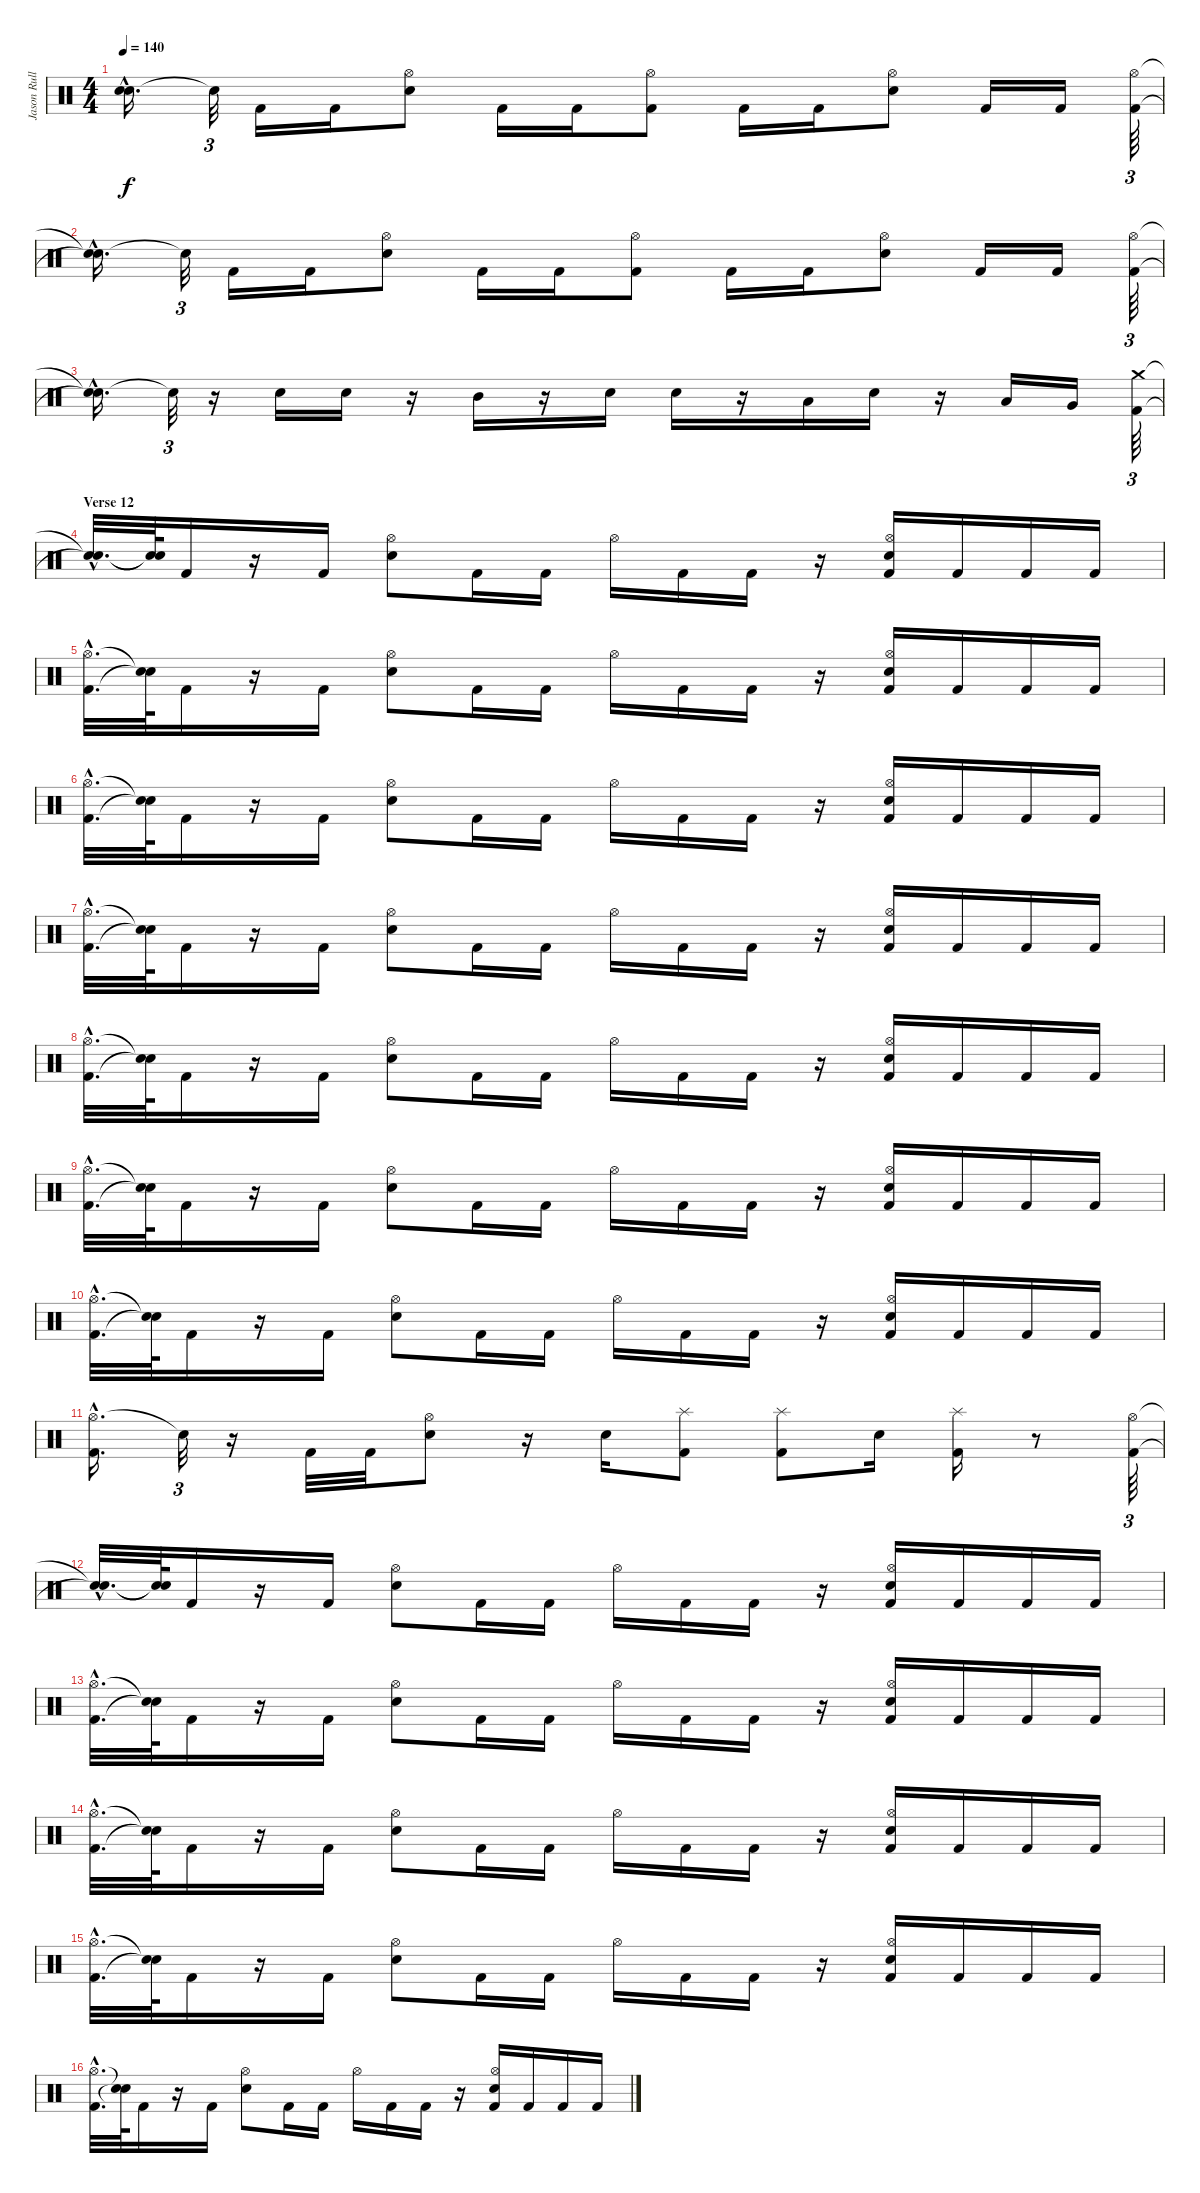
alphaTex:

\track ("Jason Rullo" "Jason Rull") {instrument percussion}
\staff {score}
\articulation defaults
\ts (4 4)
\tempo 140
\clef neutral
\ks c
("Snare (hit)"{hac t} "Snare (hit)"{hac t}).16{d dy f} "Snare (hit)"{t}.32{tu (3 2)} "Kick (hit) 2".16 "Kick (hit) 2".16 ("Hi-Hat (open)" "Electric Snare (hit)").8 "Kick (hit) 2".16 "Kick (hit) 2".16 ("Hi-Hat (open)" "Kick (hit) 2").8 "Kick (hit) 2".16 "Kick (hit) 2".16 ("Hi-Hat (open)" "Electric Snare (hit)").8 "Kick (hit) 2".16 "Kick (hit) 2".16 ("Hi-Hat (open)" "Kick (hit) 2").64{tu (3 2)} |
("Snare (hit)"{hac t} "Snare (hit)"{hac t}).16{d} "Snare (hit)"{t}.32{tu (3 2)} "Kick (hit) 2".16 "Kick (hit) 2".16 ("Hi-Hat (open)" "Electric Snare (hit)").8 "Kick (hit) 2".16 "Kick (hit) 2".16 ("Hi-Hat (open)" "Kick (hit) 2").8 "Kick (hit) 2".16 "Kick (hit) 2".16 ("Hi-Hat (open)" "Electric Snare (hit)").8 "Kick (hit) 2".16 "Kick (hit) 2".16 ("Hi-Hat (open)" "Kick (hit) 2").64{tu (3 2)} |
("Snare (hit)"{hac t} "Snare (hit)"{hac t}).16{d} "Snare (hit)"{t}.32{tu (3 2)} r.16 "Electric Snare (hit)".16 "Electric Snare (hit)".16 r.16 "Mid Tom (hit)".16 r.16 "Electric Snare (hit)".16 "Electric Snare (hit)".16 r.16 "Low Tom (hit)".16 "Electric Snare (hit)".16 r.16 "Low Tom (hit)".16 "Very Low Tom (hit)".16 ("Crash medium (hit)" "Kick (hit) 2").64{tu (3 2) volume 15 balance 8} |
\section ("" "Verse 12")
("Snare (hit)"{hac t} "Snare (hit)"{hac t}).32{d} ("Snare (hit)"{t} "Snare (hit)"{t}).64 "Kick (hit) 2".16 r.16 "Kick (hit) 2".16 ("Hi-Hat (open)" "Electric Snare (hit)").8 "Kick (hit) 2".16 "Kick (hit) 2".16 "Hi-Hat (open)".16 "Kick (hit) 2".16 "Kick (hit) 2".16 r.16 ("Hi-Hat (open)" "Kick (hit) 2" "Electric Snare (hit)").16 "Kick (hit) 2".16 "Kick (hit) 2".16 "Kick (hit) 2".16 |
("Hi-Hat (open)"{hac} "Kick (hit) 2"{hac}).32{d} ("Snare (hit)"{t} "Snare (hit)"{t}).64 "Kick (hit) 2".16 r.16 "Kick (hit) 2".16 ("Hi-Hat (open)" "Electric Snare (hit)").8 "Kick (hit) 2".16 "Kick (hit) 2".16 "Hi-Hat (open)".16 "Kick (hit) 2".16 "Kick (hit) 2".16 r.16 ("Hi-Hat (open)" "Kick (hit) 2" "Electric Snare (hit)").16 "Kick (hit) 2".16 "Kick (hit) 2".16 "Kick (hit) 2".16 |
("Hi-Hat (open)"{hac} "Kick (hit) 2"{hac}).32{d} ("Snare (hit)"{t} "Snare (hit)"{t}).64 "Kick (hit) 2".16 r.16 "Kick (hit) 2".16 ("Hi-Hat (open)" "Electric Snare (hit)").8 "Kick (hit) 2".16 "Kick (hit) 2".16 "Hi-Hat (open)".16 "Kick (hit) 2".16 "Kick (hit) 2".16 r.16 ("Hi-Hat (open)" "Kick (hit) 2" "Electric Snare (hit)").16 "Kick (hit) 2".16 "Kick (hit) 2".16 "Kick (hit) 2".16 |
("Hi-Hat (open)"{hac} "Kick (hit) 2"{hac}).32{d} ("Snare (hit)"{t} "Snare (hit)"{t}).64 "Kick (hit) 2".16 r.16 "Kick (hit) 2".16 ("Hi-Hat (open)" "Electric Snare (hit)").8 "Kick (hit) 2".16 "Kick (hit) 2".16 "Hi-Hat (open)".16 "Kick (hit) 2".16 "Kick (hit) 2".16 r.16 ("Hi-Hat (open)" "Kick (hit) 2" "Electric Snare (hit)").16 "Kick (hit) 2".16 "Kick (hit) 2".16 "Kick (hit) 2".16 |
("Hi-Hat (open)"{hac} "Kick (hit) 2"{hac}).32{d} ("Snare (hit)"{t} "Snare (hit)"{t}).64 "Kick (hit) 2".16 r.16 "Kick (hit) 2".16 ("Hi-Hat (open)" "Electric Snare (hit)").8 "Kick (hit) 2".16 "Kick (hit) 2".16 "Hi-Hat (open)".16 "Kick (hit) 2".16 "Kick (hit) 2".16 r.16 ("Hi-Hat (open)" "Kick (hit) 2" "Electric Snare (hit)").16 "Kick (hit) 2".16 "Kick (hit) 2".16 "Kick (hit) 2".16 |
("Hi-Hat (open)"{hac} "Kick (hit) 2"{hac}).32{d} ("Snare (hit)"{t} "Snare (hit)"{t}).64 "Kick (hit) 2".16 r.16 "Kick (hit) 2".16 ("Hi-Hat (open)" "Electric Snare (hit)").8 "Kick (hit) 2".16 "Kick (hit) 2".16 "Hi-Hat (open)".16 "Kick (hit) 2".16 "Kick (hit) 2".16 r.16 ("Hi-Hat (open)" "Kick (hit) 2" "Electric Snare (hit)").16 "Kick (hit) 2".16 "Kick (hit) 2".16 "Kick (hit) 2".16 |
("Hi-Hat (open)"{hac} "Kick (hit) 2"{hac}).32{d} ("Snare (hit)"{t} "Snare (hit)"{t}).64 "Kick (hit) 2".16 r.16 "Kick (hit) 2".16 ("Hi-Hat (open)" "Electric Snare (hit)").8 "Kick (hit) 2".16 "Kick (hit) 2".16 "Hi-Hat (open)".16 "Kick (hit) 2".16 "Kick (hit) 2".16 r.16 ("Hi-Hat (open)" "Kick (hit) 2" "Electric Snare (hit)").16 "Kick (hit) 2".16 "Kick (hit) 2".16 "Kick (hit) 2".16 |
("Hi-Hat (open)"{hac} "Kick (hit) 2"{hac}).16{d} "Snare (hit)"{t}.32{tu (3 2)} r.16 "Kick (hit) 2".32 "Kick (hit) 2".32 ("Hi-Hat (open)" "Electric Snare (hit)").8 r.16 "Electric Snare (hit)".16 ("Splash (hit)" "Kick (hit) 2").8 ("Splash (hit)" "Kick (hit) 2").8 "Electric Snare (hit)".16 ("Splash (hit)" "Kick (hit) 2").16 r.8 ("Hi-Hat (open)" "Kick (hit) 2").64{tu (3 2)} |
("Snare (hit)"{hac t} "Snare (hit)"{hac t}).32{d} ("Snare (hit)"{t} "Snare (hit)"{t}).64 "Kick (hit) 2".16 r.16 "Kick (hit) 2".16 ("Hi-Hat (open)" "Electric Snare (hit)").8 "Kick (hit) 2".16 "Kick (hit) 2".16 "Hi-Hat (open)".16 "Kick (hit) 2".16 "Kick (hit) 2".16 r.16 ("Hi-Hat (open)" "Kick (hit) 2" "Electric Snare (hit)").16 "Kick (hit) 2".16 "Kick (hit) 2".16 "Kick (hit) 2".16 |
("Hi-Hat (open)"{hac} "Kick (hit) 2"{hac}).32{d} ("Snare (hit)"{t} "Snare (hit)"{t}).64 "Kick (hit) 2".16 r.16 "Kick (hit) 2".16 ("Hi-Hat (open)" "Electric Snare (hit)").8 "Kick (hit) 2".16 "Kick (hit) 2".16 "Hi-Hat (open)".16 "Kick (hit) 2".16 "Kick (hit) 2".16 r.16 ("Hi-Hat (open)" "Kick (hit) 2" "Electric Snare (hit)").16 "Kick (hit) 2".16 "Kick (hit) 2".16 "Kick (hit) 2".16 |
("Hi-Hat (open)"{hac} "Kick (hit) 2"{hac}).32{d} ("Snare (hit)"{t} "Snare (hit)"{t}).64 "Kick (hit) 2".16 r.16 "Kick (hit) 2".16 ("Hi-Hat (open)" "Electric Snare (hit)").8 "Kick (hit) 2".16 "Kick (hit) 2".16 "Hi-Hat (open)".16 "Kick (hit) 2".16 "Kick (hit) 2".16 r.16 ("Hi-Hat (open)" "Kick (hit) 2" "Electric Snare (hit)").16 "Kick (hit) 2".16 "Kick (hit) 2".16 "Kick (hit) 2".16 |
("Hi-Hat (open)"{hac} "Kick (hit) 2"{hac}).32{d} ("Snare (hit)"{t} "Snare (hit)"{t}).64 "Kick (hit) 2".16 r.16 "Kick (hit) 2".16 ("Hi-Hat (open)" "Electric Snare (hit)").8 "Kick (hit) 2".16 "Kick (hit) 2".16 "Hi-Hat (open)".16 "Kick (hit) 2".16 "Kick (hit) 2".16 r.16 ("Hi-Hat (open)" "Kick (hit) 2" "Electric Snare (hit)").16 "Kick (hit) 2".16 "Kick (hit) 2".16 "Kick (hit) 2".16 |
("Hi-Hat (open)"{hac} "Kick (hit) 2"{hac}).32{d} ("Snare (hit)"{t} "Snare (hit)"{t}).64 "Kick (hit) 2".16 r.16 "Kick (hit) 2".16 ("Hi-Hat (open)" "Electric Snare (hit)").8 "Kick (hit) 2".16 "Kick (hit) 2".16 "Hi-Hat (open)".16 "Kick (hit) 2".16 "Kick (hit) 2".16 r.16 ("Hi-Hat (open)" "Kick (hit) 2" "Electric Snare (hit)").16 "Kick (hit) 2".16 "Kick (hit) 2".16 "Kick (hit) 2".16
